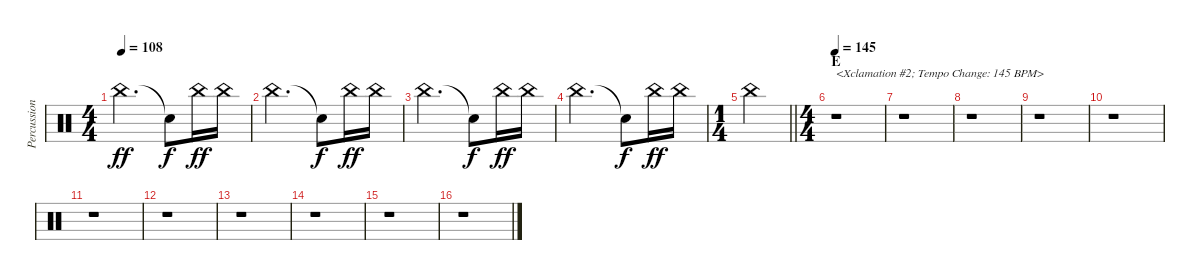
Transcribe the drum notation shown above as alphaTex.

\track ("Percussion" "Percussion") {instrument percussion}
\staff {score}
\articulation defaults
\ts (4 4)
\tempo 108
\clef neutral
\ks c "China (hit)".2{d dy ff} "Snare (hit)"{t}.8{dy f} "China (hit)".16{dy ff} "China (hit)".16
|
"China (hit)".2{d} "Snare (hit)"{t}.8{dy f} "China (hit)".16{dy ff} "China (hit)".16 |
"China (hit)".2{d} "Snare (hit)"{t}.8{dy f} "China (hit)".16{dy ff} "China (hit)".16 |
"China (hit)".2{d} "Snare (hit)"{t}.8{dy f} "China (hit)".16{dy ff} "China (hit)".16 |
\ts (1 4)
\barLineRight lightlight "China (hit)".4
|
\ts (4 4)
\section ("" "E")
\tempo 145
r.1{txt "<Xclamation #2; Tempo Change: 145 BPM>"} |
r.1 |
r.1 |
r.1 |
r.1 |
r.1 |
r.1 |
r.1 |
r.1 |
r.1 |
r.1
